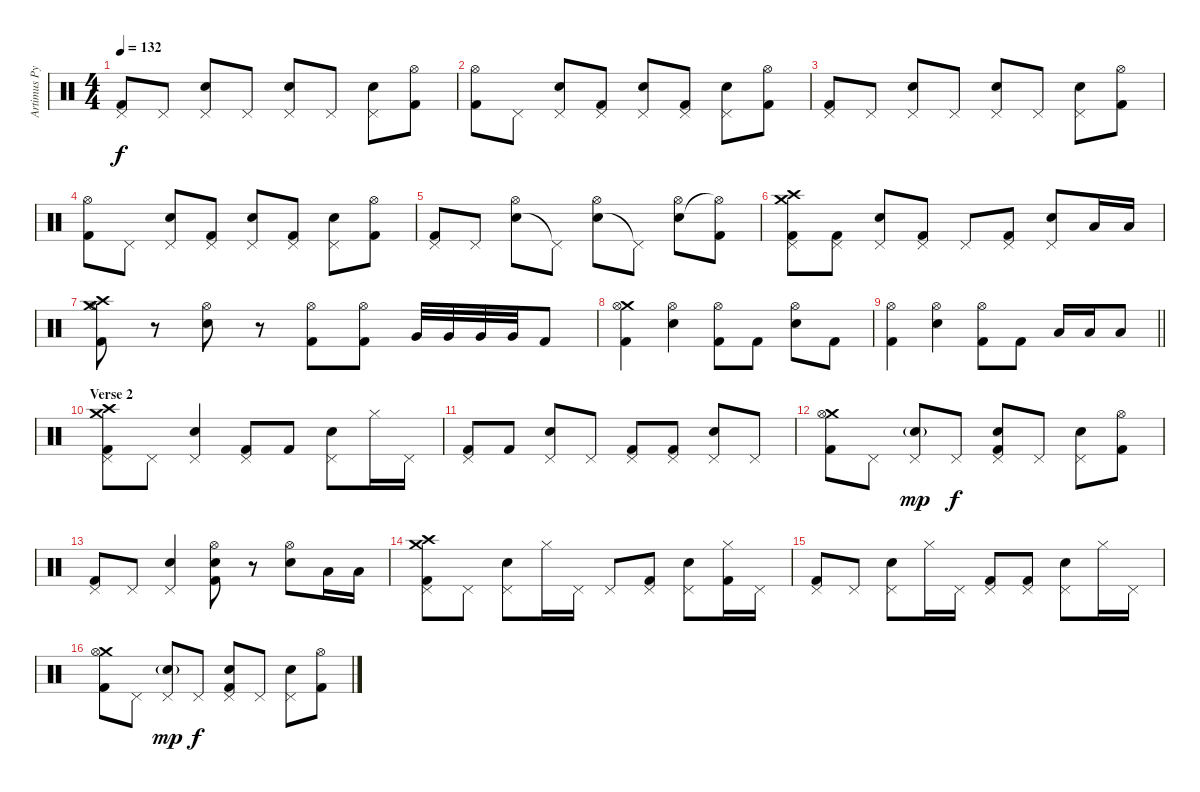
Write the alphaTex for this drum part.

\track ("Artimus Pyle" "Artimus Py") {instrument percussion}
\staff {score}
\articulation defaults
\ts (4 4)
\tempo 132
\clef neutral
\ks c
("Pedal Hi-Hat (hit)" "Kick (hit) 2").8{dy f} "Pedal Hi-Hat (hit)".8 ("Snare (hit) 2" "Pedal Hi-Hat (hit)").8 "Pedal Hi-Hat (hit)".8 ("Snare (hit) 2" "Pedal Hi-Hat (hit)").8 "Pedal Hi-Hat (hit)".8 ("Snare (hit) 2" "Pedal Hi-Hat (hit)").8 ("Hi-Hat (open)" "Kick (hit) 2").8 |
("Hi-Hat (open)" "Kick (hit) 2").8 "Pedal Hi-Hat (hit)".8 ("Snare (hit) 2" "Pedal Hi-Hat (hit)").8 ("Pedal Hi-Hat (hit)" "Kick (hit) 2").8 ("Snare (hit) 2" "Pedal Hi-Hat (hit)").8 ("Pedal Hi-Hat (hit)" "Kick (hit) 2").8 ("Snare (hit) 2" "Pedal Hi-Hat (hit)").8 ("Hi-Hat (open)" "Kick (hit) 2").8 |
("Pedal Hi-Hat (hit)" "Kick (hit) 2").8 "Pedal Hi-Hat (hit)".8 ("Snare (hit) 2" "Pedal Hi-Hat (hit)").8 "Pedal Hi-Hat (hit)".8 ("Snare (hit) 2" "Pedal Hi-Hat (hit)").8 "Pedal Hi-Hat (hit)".8 ("Snare (hit) 2" "Pedal Hi-Hat (hit)").8 ("Hi-Hat (open)" "Kick (hit) 2").8 |
("Hi-Hat (open)" "Kick (hit) 2").8 "Pedal Hi-Hat (hit)".8 ("Snare (hit) 2" "Pedal Hi-Hat (hit)").8 ("Pedal Hi-Hat (hit)" "Kick (hit) 2").8 ("Snare (hit) 2" "Pedal Hi-Hat (hit)").8 ("Pedal Hi-Hat (hit)" "Kick (hit) 2").8 ("Snare (hit) 2" "Pedal Hi-Hat (hit)").8 ("Hi-Hat (open)" "Kick (hit) 2").8 |
("Pedal Hi-Hat (hit)" "Kick (hit) 2").8 "Pedal Hi-Hat (hit)".8 ("Snare (hit) 2" "Hi-Hat (open)").8 "Pedal Hi-Hat (hit)"{t}.8 ("Snare (hit) 2" "Hi-Hat (open)").8 "Pedal Hi-Hat (hit)"{t}.8 ("Snare (hit) 2" "Hi-Hat (open)").8 ("Hi-Hat (open)"{t} "Kick (hit) 2").8 |
("Crash high (hit)" "Crash medium (hit)" "Pedal Hi-Hat (hit)" "Kick (hit) 2").8 ("Pedal Hi-Hat (hit)" "Kick (hit) 2").8 ("Snare (hit) 2" "Pedal Hi-Hat (hit)").8 ("Pedal Hi-Hat (hit)" "Kick (hit) 2").8 "Pedal Hi-Hat (hit)".8 ("Pedal Hi-Hat (hit)" "Kick (hit) 2").8 ("Snare (hit) 2" "Pedal Hi-Hat (hit)").8 "Low Tom (hit)".16 "Low Tom (hit)".16 |
("Crash medium (hit)" "Crash high (hit)" "Hi-Hat (open)" "Kick (hit) 2").8 r.8 ("Snare (hit) 2" "Hi-Hat (open)").8 r.8 ("Hi-Hat (open)" "Kick (hit) 2").8 ("Hi-Hat (open)" "Kick (hit) 2").8 "Very Low Tom (hit)".32 "Very Low Tom (hit)".32 "Very Low Tom (hit)".32 "Very Low Tom (hit)".32 "Kick (hit) 2".8 |
("Crash medium (hit)" "Hi-Hat (open)" "Kick (hit) 2").4 ("Snare (hit) 2" "Hi-Hat (open)").4 ("Hi-Hat (open)" "Kick (hit) 2").8 "Kick (hit) 2".8 ("Snare (hit) 2" "Hi-Hat (open)").8 "Kick (hit) 2".8 |
\barLineRight lightlight
("Hi-Hat (open)" "Kick (hit) 2").4 ("Snare (hit) 2" "Hi-Hat (open)").4 ("Hi-Hat (open)" "Kick (hit) 2").8 "Kick (hit) 2".8 "Low Tom (hit)".16 "Low Tom (hit)".16 "Low Tom (hit)".8 |
\section ("" "Verse 2")
("Crash medium (hit)" "Crash high (hit)" "Pedal Hi-Hat (hit)" "Kick (hit) 2").8 "Pedal Hi-Hat (hit)".8 ("Snare (hit) 2" "Pedal Hi-Hat (hit)").4 ("Pedal Hi-Hat (hit)" "Kick (hit) 2").8 "Kick (hit) 2".8 ("Snare (hit) 2" "Pedal Hi-Hat (hit)").8 "Hi-Hat (closed)".16 "Pedal Hi-Hat (hit)".16 |
("Pedal Hi-Hat (hit)" "Kick (hit) 2").8 "Kick (hit) 2".8 ("Snare (hit) 2" "Pedal Hi-Hat (hit)").8 "Pedal Hi-Hat (hit)".8 ("Pedal Hi-Hat (hit)" "Kick (hit) 2").8 ("Pedal Hi-Hat (hit)" "Kick (hit) 2").8 ("Snare (hit) 2" "Pedal Hi-Hat (hit)").8 "Pedal Hi-Hat (hit)".8 |
("Crash medium (hit)" "Hi-Hat (open)" "Kick (hit) 2").8 "Pedal Hi-Hat (hit)".8 ("Snare (hit) 2"{g} "Pedal Hi-Hat (hit)").8{dy mp} "Pedal Hi-Hat (hit)".8{dy f} ("Snare (hit) 2" "Pedal Hi-Hat (hit)" "Kick (hit) 2").8 "Pedal Hi-Hat (hit)".8 ("Snare (hit) 2" "Pedal Hi-Hat (hit)").8 ("Hi-Hat (open)" "Kick (hit) 2").8 |
("Pedal Hi-Hat (hit)" "Kick (hit) 2").8 "Pedal Hi-Hat (hit)".8 ("Snare (hit) 2" "Pedal Hi-Hat (hit)").4 ("Snare (hit) 2" "Hi-Hat (open)" "Kick (hit) 2").8 r.8 ("Snare (hit) 2" "Hi-Hat (open)").8 "Low Tom (hit)".16 "Low Tom (hit)".16 |
("Crash medium (hit)" "Crash high (hit)" "Pedal Hi-Hat (hit)" "Kick (hit) 2").8 "Pedal Hi-Hat (hit)".8 ("Snare (hit) 2" "Pedal Hi-Hat (hit)").8 "Hi-Hat (closed)".16 "Pedal Hi-Hat (hit)".16 "Pedal Hi-Hat (hit)".8 ("Pedal Hi-Hat (hit)" "Kick (hit) 2").8 ("Snare (hit) 2" "Pedal Hi-Hat (hit)").8 ("Hi-Hat (closed)" "Kick (hit) 2").16 "Pedal Hi-Hat (hit)".16 |
("Pedal Hi-Hat (hit)" "Kick (hit) 2").8 "Pedal Hi-Hat (hit)".8 ("Snare (hit) 2" "Pedal Hi-Hat (hit)").8 "Hi-Hat (closed)".16 "Pedal Hi-Hat (hit)".16 ("Pedal Hi-Hat (hit)" "Kick (hit) 2").8 ("Pedal Hi-Hat (hit)" "Kick (hit) 2").8 ("Snare (hit) 2" "Pedal Hi-Hat (hit)").8 "Hi-Hat (closed)".16 "Pedal Hi-Hat (hit)".16 |
("Crash medium (hit)" "Hi-Hat (open)" "Kick (hit) 2").8 "Pedal Hi-Hat (hit)".8 ("Snare (hit) 2"{g} "Pedal Hi-Hat (hit)").8{dy mp} "Pedal Hi-Hat (hit)".8{dy f} ("Snare (hit) 2" "Pedal Hi-Hat (hit)" "Kick (hit) 2").8 "Pedal Hi-Hat (hit)".8 ("Snare (hit) 2" "Pedal Hi-Hat (hit)").8 ("Hi-Hat (open)" "Kick (hit) 2").8
